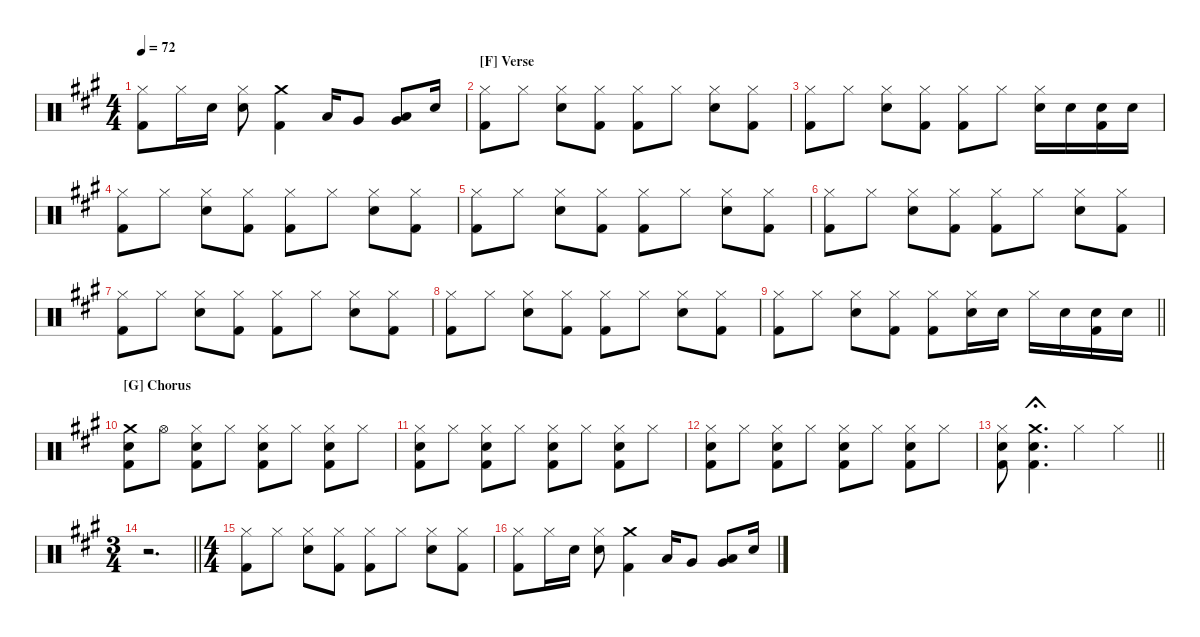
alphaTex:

\hideDynamics
\bracketExtendMode nobrackets
\singleTrackTrackNamePolicy hidden
\multiTrackTrackNamePolicy hidden
\otherSystemsTrackNameOrientation horizontal
\track ("Drumkit" "Drums") {defaultSystemsLayout 4 instrument percussion}
\staff {score}
\articulation defaults
\ts (4 4)
\tempo 72
\clef neutral
\ks a
("Hi-Hat (closed)"{acc forcenatural} "Kick (hit) 2"{acc forcenatural}).8{dy mf beam Down} "Hi-Hat (closed)"{acc forcenatural}.16{beam Down} "Snare (hit) 2"{acc forcenatural}.16{beam Down} ("Hi-Hat (closed)"{acc forcenatural} "Snare (hit) 2"{acc forcenatural}).8{beam Down} ("Crash medium (hit)"{acc forcenatural} "Kick (hit) 2"{acc forcenatural}).4{beam Down} "Low Tom (hit)"{acc forcenatural}.16{dy ff beam Up} "Very Low Tom (hit)"{acc forcenatural}.8{beam Up} ("Low Tom (hit)"{acc forcenatural} "Very Low Tom (hit)"{acc forcenatural}).8{beam Up} "Snare (hit) 2"{acc forcenatural}.16{dy mf beam Up} |
\section ("F" "Verse")
("Hi-Hat (closed)"{acc forcenatural} "Kick (hit) 2"{acc forcenatural}).8{beam Down} "Hi-Hat (closed)"{acc forcenatural}.8{beam Down} ("Hi-Hat (closed)"{acc forcenatural} "Snare (hit) 2"{acc forcenatural}).8{beam Down} ("Hi-Hat (closed)"{acc forcenatural} "Kick (hit) 2"{acc forcenatural}).8{beam Down} ("Hi-Hat (closed)"{acc forcenatural} "Kick (hit) 2"{acc forcenatural}).8{beam Down} "Hi-Hat (closed)"{acc forcenatural}.8{beam Down} ("Hi-Hat (closed)"{acc forcenatural} "Snare (hit) 2"{acc forcenatural}).8{beam Down} ("Hi-Hat (closed)"{acc forcenatural} "Kick (hit) 2"{acc forcenatural}).8{beam Down} |
("Kick (hit) 2"{acc forcenatural} "Hi-Hat (closed)"{acc forcenatural}).8{beam Down} "Hi-Hat (closed)"{acc forcenatural}.8{beam Down} ("Snare (hit) 2"{acc forcenatural} "Hi-Hat (closed)"{acc forcenatural}).8{beam Down} ("Kick (hit) 2"{acc forcenatural} "Hi-Hat (closed)"{acc forcenatural}).8{beam Down} ("Kick (hit) 2"{acc forcenatural} "Hi-Hat (closed)"{acc forcenatural}).8{beam Down} "Hi-Hat (closed)"{acc forcenatural}.8{beam Down} ("Snare (hit) 2"{acc forcenatural} "Hi-Hat (closed)"{acc forcenatural}).16{beam Down} "Snare (hit) 2"{acc forcenatural}.16{beam Down} ("Snare (hit) 2"{acc forcenatural} "Kick (hit) 2"{acc forcenatural}).16{beam Down} "Snare (hit) 2"{acc forcenatural}.16{beam Down} |
("Hi-Hat (closed)"{acc forcenatural} "Kick (hit) 2"{acc forcenatural}).8{beam Down} "Hi-Hat (closed)"{acc forcenatural}.8{beam Down} ("Hi-Hat (closed)"{acc forcenatural} "Snare (hit) 2"{acc forcenatural}).8{beam Down} ("Hi-Hat (closed)"{acc forcenatural} "Kick (hit) 2"{acc forcenatural}).8{beam Down} ("Hi-Hat (closed)"{acc forcenatural} "Kick (hit) 2"{acc forcenatural}).8{beam Down} "Hi-Hat (closed)"{acc forcenatural}.8{beam Down} ("Hi-Hat (closed)"{acc forcenatural} "Snare (hit) 2"{acc forcenatural}).8{beam Down} ("Hi-Hat (closed)"{acc forcenatural} "Kick (hit) 2"{acc forcenatural}).8{beam Down} |
("Hi-Hat (closed)"{acc forcenatural} "Kick (hit) 2"{acc forcenatural}).8{beam Down} "Hi-Hat (closed)"{acc forcenatural}.8{beam Down} ("Hi-Hat (closed)"{acc forcenatural} "Snare (hit) 2"{acc forcenatural}).8{beam Down} ("Hi-Hat (closed)"{acc forcenatural} "Kick (hit) 2"{acc forcenatural}).8{beam Down} ("Hi-Hat (closed)"{acc forcenatural} "Kick (hit) 2"{acc forcenatural}).8{beam Down} "Hi-Hat (closed)"{acc forcenatural}.8{beam Down} ("Hi-Hat (closed)"{acc forcenatural} "Snare (hit) 2"{acc forcenatural}).8{beam Down} ("Hi-Hat (closed)"{acc forcenatural} "Kick (hit) 2"{acc forcenatural}).8{beam Down} |
("Hi-Hat (closed)"{acc forcenatural} "Kick (hit) 2"{acc forcenatural}).8{beam Down} "Hi-Hat (closed)"{acc forcenatural}.8{beam Down} ("Hi-Hat (closed)"{acc forcenatural} "Snare (hit) 2"{acc forcenatural}).8{beam Down} ("Hi-Hat (closed)"{acc forcenatural} "Kick (hit) 2"{acc forcenatural}).8{beam Down} ("Hi-Hat (closed)"{acc forcenatural} "Kick (hit) 2"{acc forcenatural}).8{beam Down} "Hi-Hat (closed)"{acc forcenatural}.8{beam Down} ("Hi-Hat (closed)"{acc forcenatural} "Snare (hit) 2"{acc forcenatural}).8{beam Down} ("Hi-Hat (closed)"{acc forcenatural} "Kick (hit) 2"{acc forcenatural}).8{beam Down} |
("Hi-Hat (closed)"{acc forcenatural} "Kick (hit) 2"{acc forcenatural}).8{beam Down} "Hi-Hat (closed)"{acc forcenatural}.8{beam Down} ("Hi-Hat (closed)"{acc forcenatural} "Snare (hit) 2"{acc forcenatural}).8{beam Down} ("Hi-Hat (closed)"{acc forcenatural} "Kick (hit) 2"{acc forcenatural}).8{beam Down} ("Hi-Hat (closed)"{acc forcenatural} "Kick (hit) 2"{acc forcenatural}).8{beam Down} "Hi-Hat (closed)"{acc forcenatural}.8{beam Down} ("Hi-Hat (closed)"{acc forcenatural} "Snare (hit) 2"{acc forcenatural}).8{beam Down} ("Hi-Hat (closed)"{acc forcenatural} "Kick (hit) 2"{acc forcenatural}).8{beam Down} |
("Hi-Hat (closed)"{acc forcenatural} "Kick (hit) 2"{acc forcenatural}).8{beam Down} "Hi-Hat (closed)"{acc forcenatural}.8{beam Down} ("Hi-Hat (closed)"{acc forcenatural} "Snare (hit) 2"{acc forcenatural}).8{beam Down} ("Hi-Hat (closed)"{acc forcenatural} "Kick (hit) 2"{acc forcenatural}).8{beam Down} ("Hi-Hat (closed)"{acc forcenatural} "Kick (hit) 2"{acc forcenatural}).8{beam Down} "Hi-Hat (closed)"{acc forcenatural}.8{beam Down} ("Hi-Hat (closed)"{acc forcenatural} "Snare (hit) 2"{acc forcenatural}).8{beam Down} ("Hi-Hat (closed)"{acc forcenatural} "Kick (hit) 2"{acc forcenatural}).8{beam Down} |
\barLineRight lightlight
("Kick (hit) 2"{acc forcenatural} "Hi-Hat (closed)"{acc forcenatural}).8{beam Down} "Hi-Hat (closed)"{acc forcenatural}.8{beam Down} ("Snare (hit) 2"{acc forcenatural} "Hi-Hat (closed)"{acc forcenatural}).8{beam Down} ("Kick (hit) 2"{acc forcenatural} "Hi-Hat (closed)"{acc forcenatural}).8{beam Down} ("Kick (hit) 2"{acc forcenatural} "Hi-Hat (closed)"{acc forcenatural}).8{beam Down} ("Snare (hit) 2"{acc forcenatural} "Hi-Hat (closed)"{acc forcenatural}).16{beam Down} "Snare (hit) 2"{acc forcenatural}.16{beam Down} "Hi-Hat (closed)"{acc forcenatural}.16{beam Down} "Snare (hit) 2"{acc forcenatural}.16{beam Down} ("Snare (hit) 2"{acc forcenatural} "Kick (hit) 2"{acc forcenatural}).16{beam Down} "Snare (hit) 2"{acc forcenatural}.16{beam Down} |
\section ("G" "Chorus")
("Snare (hit) 2"{acc forcenatural} "Crash medium (hit)"{acc forcenatural} "Kick (hit) 2"{acc forcenatural}).8{beam Down} "Hi-Hat (open)"{acc forcenatural}.8{beam Down} ("Kick (hit) 2"{acc forcenatural} "Hi-Hat (closed)"{acc forcenatural} "Snare (hit) 2"{acc forcenatural}).8{beam Down} "Hi-Hat (closed)"{acc forcenatural}.8{beam Down} ("Kick (hit) 2"{acc forcenatural} "Snare (hit) 2"{acc forcenatural} "Hi-Hat (closed)"{acc forcenatural}).8{beam Down} "Hi-Hat (closed)"{acc forcenatural}.8{beam Down} ("Kick (hit) 2"{acc forcenatural} "Snare (hit) 2"{acc forcenatural} "Hi-Hat (closed)"{acc forcenatural}).8{beam Down} "Hi-Hat (closed)"{acc forcenatural}.8{beam Down} |
("Hi-Hat (closed)"{acc forcenatural} "Snare (hit) 2"{acc forcenatural} "Kick (hit) 2"{acc forcenatural}).8{beam Down} "Hi-Hat (closed)"{acc forcenatural}.8{beam Down} ("Kick (hit) 2"{acc forcenatural} "Hi-Hat (closed)"{acc forcenatural} "Snare (hit) 2"{acc forcenatural}).8{beam Down} "Hi-Hat (closed)"{acc forcenatural}.8{beam Down} ("Kick (hit) 2"{acc forcenatural} "Snare (hit) 2"{acc forcenatural} "Hi-Hat (closed)"{acc forcenatural}).8{beam Down} "Hi-Hat (closed)"{acc forcenatural}.8{beam Down} ("Kick (hit) 2"{acc forcenatural} "Snare (hit) 2"{acc forcenatural} "Hi-Hat (closed)"{acc forcenatural}).8{beam Down} "Hi-Hat (closed)"{acc forcenatural}.8{beam Down} |
("Hi-Hat (closed)"{acc forcenatural} "Snare (hit) 2"{acc forcenatural} "Kick (hit) 2"{acc forcenatural}).8{beam Down} "Hi-Hat (closed)"{acc forcenatural}.8{beam Down} ("Kick (hit) 2"{acc forcenatural} "Hi-Hat (closed)"{acc forcenatural} "Snare (hit) 2"{acc forcenatural}).8{beam Down} "Hi-Hat (closed)"{acc forcenatural}.8{beam Down} ("Kick (hit) 2"{acc forcenatural} "Snare (hit) 2"{acc forcenatural} "Hi-Hat (closed)"{acc forcenatural}).8{beam Down} "Hi-Hat (closed)"{acc forcenatural}.8{beam Down} ("Kick (hit) 2"{acc forcenatural} "Snare (hit) 2"{acc forcenatural} "Hi-Hat (closed)"{acc forcenatural}).8{beam Down} "Hi-Hat (closed)"{acc forcenatural}.8{beam Down} |
\barLineRight lightlight
("Hi-Hat (closed)"{acc forcenatural} "Snare (hit) 2"{acc forcenatural} "Kick (hit) 2"{acc forcenatural}).8{beam Down} ("Snare (hit) 2"{acc forcenatural} "Kick (hit) 2"{acc forcenatural} "Crash medium (hit)"{acc forcenatural}).4{d fermata (short 0) beam Down} "Hi-Hat (closed)"{acc forcenatural}.4{beam Down} "Hi-Hat (closed)"{acc forcenatural}.4{beam Down} |
\ts (3 4)
\beaming (8 2 2 2)
\barLineRight lightlight
r.2{d beam Down} |
\ts (4 4)
\beaming (8 2 2 2 2)
("Hi-Hat (closed)"{acc forcenatural} "Kick (hit) 2"{acc forcenatural}).8{beam Down} "Hi-Hat (closed)"{acc forcenatural}.8{beam Down} ("Hi-Hat (closed)"{acc forcenatural} "Snare (hit) 2"{acc forcenatural}).8{beam Down} ("Hi-Hat (closed)"{acc forcenatural} "Kick (hit) 2"{acc forcenatural}).8{beam Down} ("Hi-Hat (closed)"{acc forcenatural} "Kick (hit) 2"{acc forcenatural}).8{beam Down} "Hi-Hat (closed)"{acc forcenatural}.8{beam Down} ("Hi-Hat (closed)"{acc forcenatural} "Snare (hit) 2"{acc forcenatural}).8{beam Down} ("Hi-Hat (closed)"{acc forcenatural} "Kick (hit) 2"{acc forcenatural}).8{beam Down} |
("Hi-Hat (closed)"{acc forcenatural} "Kick (hit) 2"{acc forcenatural}).8{beam Down} "Hi-Hat (closed)"{acc forcenatural}.16{beam Down} "Snare (hit) 2"{acc forcenatural}.16{beam Down} ("Hi-Hat (closed)"{acc forcenatural} "Snare (hit) 2"{acc forcenatural}).8{beam Down} ("Crash medium (hit)"{acc forcenatural} "Kick (hit) 2"{acc forcenatural}).4{beam Down} "Low Tom (hit)"{acc forcenatural}.16{dy ff beam Up} "Very Low Tom (hit)"{acc forcenatural}.8{beam Up} ("Low Tom (hit)"{acc forcenatural} "Very Low Tom (hit)"{acc forcenatural}).8{beam Up} "Snare (hit) 2"{acc forcenatural}.16{dy mf beam Up}
